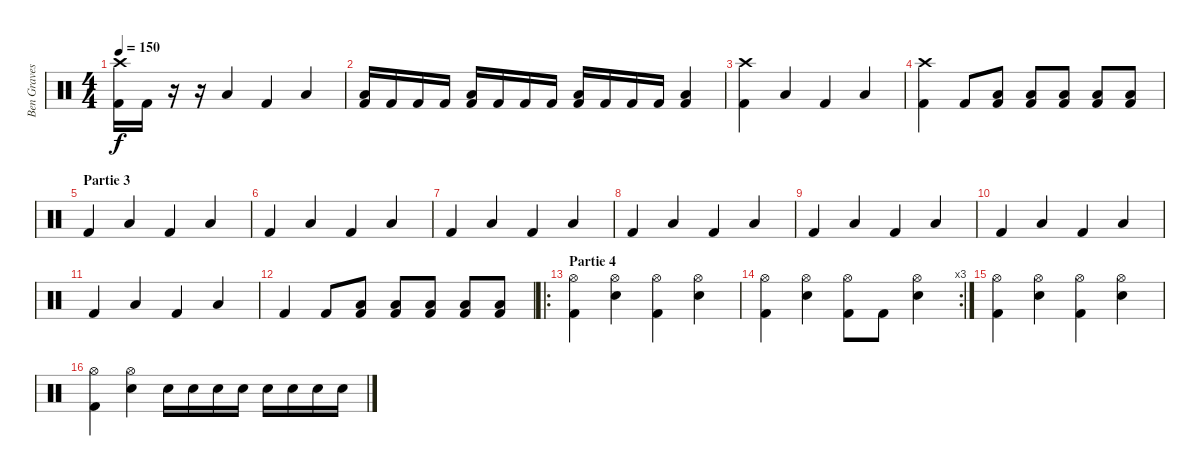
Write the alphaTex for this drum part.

\track ("Ben Graves" "Ben Graves") {instrument percussion}
\staff {score}
\articulation defaults
\ts (4 4)
\tempo 150
\clef neutral
\ks c
("Crash high (hit)" "Kick (hit) 2").16{dy f} "Kick (hit) 2".16 r.16 r.16 "Low Floor Tom (hit)".4 "Kick (hit) 2".4 "Low Floor Tom (hit)".4 |
("Low Floor Tom (hit)" "Kick (hit) 2").16 "Kick (hit) 2".16 "Kick (hit) 2".16 "Kick (hit) 2".16 ("Low Floor Tom (hit)" "Kick (hit) 2").16 "Kick (hit) 2".16 "Kick (hit) 2".16 "Kick (hit) 2".16 ("Low Floor Tom (hit)" "Kick (hit) 2").16 "Kick (hit) 2".16 "Kick (hit) 2".16 "Kick (hit) 2".16 ("Low Floor Tom (hit)" "Kick (hit) 2").4 |
("Crash high (hit)" "Kick (hit) 2").4 "Low Floor Tom (hit)".4 "Kick (hit) 2".4 "Low Floor Tom (hit)".4 |
("Crash high (hit)" "Kick (hit) 2").4 "Kick (hit) 2".8 ("Low Floor Tom (hit)" "Kick (hit) 2").8 ("Low Floor Tom (hit)" "Kick (hit) 2").8 ("Low Floor Tom (hit)" "Kick (hit) 2").8 ("Low Floor Tom (hit)" "Kick (hit) 2").8 ("Low Floor Tom (hit)" "Kick (hit) 2").8 |
\section ("" "Partie 3")
"Kick (hit) 2".4 "Low Floor Tom (hit)".4 "Kick (hit) 2".4 "Low Floor Tom (hit)".4 |
"Kick (hit) 2".4 "Low Floor Tom (hit)".4 "Kick (hit) 2".4 "Low Floor Tom (hit)".4 |
"Kick (hit) 2".4 "Low Floor Tom (hit)".4 "Kick (hit) 2".4 "Low Floor Tom (hit)".4 |
"Kick (hit) 2".4 "Low Floor Tom (hit)".4 "Kick (hit) 2".4 "Low Floor Tom (hit)".4 |
"Kick (hit) 2".4 "Low Floor Tom (hit)".4 "Kick (hit) 2".4 "Low Floor Tom (hit)".4 |
"Kick (hit) 2".4 "Low Floor Tom (hit)".4 "Kick (hit) 2".4 "Low Floor Tom (hit)".4 |
"Kick (hit) 2".4 "Low Floor Tom (hit)".4 "Kick (hit) 2".4 "Low Floor Tom (hit)".4 |
"Kick (hit) 2".4 "Kick (hit) 2".8 ("Low Floor Tom (hit)" "Kick (hit) 2").8 ("Low Floor Tom (hit)" "Kick (hit) 2").8 ("Low Floor Tom (hit)" "Kick (hit) 2").8 ("Low Floor Tom (hit)" "Kick (hit) 2").8 ("Low Floor Tom (hit)" "Kick (hit) 2").8 |
\ro
\section ("" "Partie 4")
("Hi-Hat (open)" "Kick (hit) 2").4 ("Hi-Hat (open)" "Snare (hit) 2").4 ("Hi-Hat (open)" "Kick (hit) 2").4 ("Hi-Hat (open)" "Snare (hit) 2").4 |
\rc 3
("Hi-Hat (open)" "Kick (hit) 2").4 ("Hi-Hat (open)" "Snare (hit) 2").4 ("Hi-Hat (open)" "Kick (hit) 2").8 "Kick (hit) 2".8 ("Hi-Hat (open)" "Snare (hit) 2").4 |
("Hi-Hat (open)" "Kick (hit) 2").4 ("Hi-Hat (open)" "Snare (hit) 2").4 ("Hi-Hat (open)" "Kick (hit) 2").4 ("Hi-Hat (open)" "Snare (hit) 2").4 |
("Hi-Hat (open)" "Kick (hit) 2").4 ("Hi-Hat (open)" "Snare (hit) 2").4 "Snare (hit) 2".16 "Snare (hit) 2".16 "Snare (hit) 2".16 "Snare (hit) 2".16 "Snare (hit) 2".16 "Snare (hit) 2".16 "Snare (hit) 2".16 "Snare (hit) 2".16
